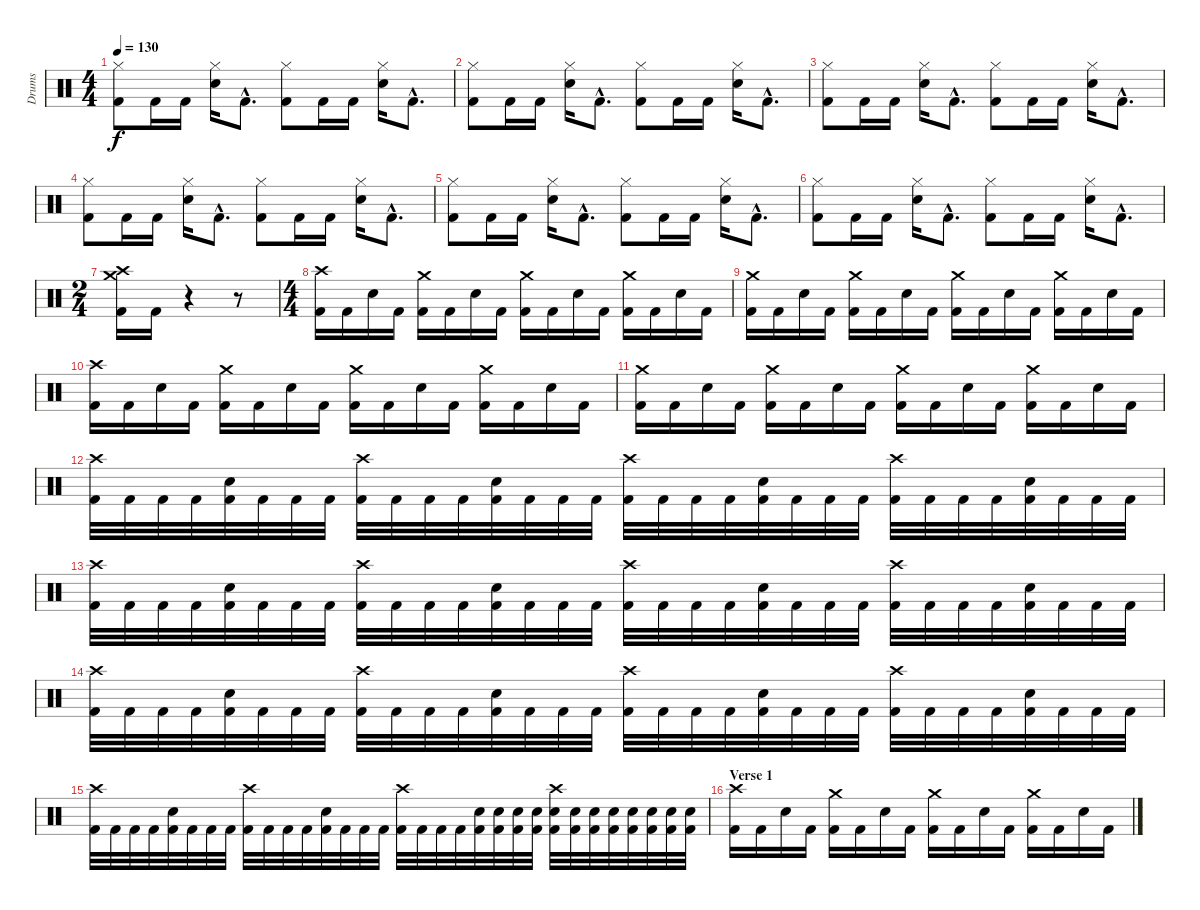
\track ("Drums" "Drums") {instrument percussion}
\staff {score}
\articulation defaults
\ts (4 4)
\tempo 130
\clef neutral
\ks c
("Hi-Hat (closed)" "Kick (hit) 2").8{dy f} "Kick (hit) 2".16{volume 14} "Kick (hit) 2".16 ("Hi-Hat (closed)" "Electric Snare (hit)").16 "Kick (hit) 2"{hac}.8{d} ("Hi-Hat (closed)" "Kick (hit) 2").8 "Kick (hit) 2".16 "Kick (hit) 2".16 ("Hi-Hat (closed)" "Electric Snare (hit)").16 "Kick (hit) 2"{hac}.8{d} |
("Hi-Hat (closed)" "Kick (hit) 2").8 "Kick (hit) 2".16 "Kick (hit) 2".16 ("Hi-Hat (closed)" "Electric Snare (hit)").16 "Kick (hit) 2"{hac}.8{d} ("Hi-Hat (closed)" "Kick (hit) 2").8 "Kick (hit) 2".16 "Kick (hit) 2".16 ("Hi-Hat (closed)" "Electric Snare (hit)").16 "Kick (hit) 2"{hac}.8{d} |
("Hi-Hat (closed)" "Kick (hit) 2").8 "Kick (hit) 2".16 "Kick (hit) 2".16 ("Hi-Hat (closed)" "Electric Snare (hit)").16 "Kick (hit) 2"{hac}.8{d} ("Hi-Hat (closed)" "Kick (hit) 2").8 "Kick (hit) 2".16 "Kick (hit) 2".16 ("Hi-Hat (closed)" "Electric Snare (hit)").16 "Kick (hit) 2"{hac}.8{d} |
("Hi-Hat (closed)" "Kick (hit) 2").8 "Kick (hit) 2".16 "Kick (hit) 2".16 ("Hi-Hat (closed)" "Electric Snare (hit)").16 "Kick (hit) 2"{hac}.8{d} ("Hi-Hat (closed)" "Kick (hit) 2").8 "Kick (hit) 2".16 "Kick (hit) 2".16 ("Hi-Hat (closed)" "Electric Snare (hit)").16 "Kick (hit) 2"{hac}.8{d} |
("Hi-Hat (closed)" "Kick (hit) 2").8 "Kick (hit) 2".16 "Kick (hit) 2".16 ("Hi-Hat (closed)" "Electric Snare (hit)").16 "Kick (hit) 2"{hac}.8{d} ("Hi-Hat (closed)" "Kick (hit) 2").8 "Kick (hit) 2".16 "Kick (hit) 2".16 ("Hi-Hat (closed)" "Electric Snare (hit)").16 "Kick (hit) 2"{hac}.8{d} |
("Hi-Hat (closed)" "Kick (hit) 2").8 "Kick (hit) 2".16 "Kick (hit) 2".16 ("Hi-Hat (closed)" "Electric Snare (hit)").16 "Kick (hit) 2"{hac}.8{d} ("Hi-Hat (closed)" "Kick (hit) 2").8 "Kick (hit) 2".16 "Kick (hit) 2".16 ("Hi-Hat (closed)" "Electric Snare (hit)").16 "Kick (hit) 2"{hac}.8{d} |
\ts (2 4)
("Crash medium (hit)" "Crash high (hit)" "Kick (hit) 2").16 "Kick (hit) 2".16 r.4 r.8 |
\ts (4 4)
("Crash high (hit)" "Kick (hit) 2").16 "Kick (hit) 2".16 "Electric Snare (hit)".16 "Kick (hit) 2".16 ("Crash medium (hit)" "Kick (hit) 2").16 "Kick (hit) 2".16 "Electric Snare (hit)".16 "Kick (hit) 2".16 ("Crash medium (hit)" "Kick (hit) 2").16 "Kick (hit) 2".16 "Electric Snare (hit)".16 "Kick (hit) 2".16 ("Crash medium (hit)" "Kick (hit) 2").16 "Kick (hit) 2".16 "Electric Snare (hit)".16 "Kick (hit) 2".16 |
("Crash medium (hit)" "Kick (hit) 2").16 "Kick (hit) 2".16 "Electric Snare (hit)".16 "Kick (hit) 2".16 ("Crash medium (hit)" "Kick (hit) 2").16 "Kick (hit) 2".16 "Electric Snare (hit)".16 "Kick (hit) 2".16 ("Crash medium (hit)" "Kick (hit) 2").16 "Kick (hit) 2".16 "Electric Snare (hit)".16 "Kick (hit) 2".16 ("Crash medium (hit)" "Kick (hit) 2").16 "Kick (hit) 2".16 "Electric Snare (hit)".16 "Kick (hit) 2".16 |
("Crash high (hit)" "Kick (hit) 2").16 "Kick (hit) 2".16 "Electric Snare (hit)".16 "Kick (hit) 2".16 ("Crash medium (hit)" "Kick (hit) 2").16 "Kick (hit) 2".16 "Electric Snare (hit)".16 "Kick (hit) 2".16 ("Crash medium (hit)" "Kick (hit) 2").16 "Kick (hit) 2".16 "Electric Snare (hit)".16 "Kick (hit) 2".16 ("Crash medium (hit)" "Kick (hit) 2").16 "Kick (hit) 2".16 "Electric Snare (hit)".16 "Kick (hit) 2".16 |
("Crash medium (hit)" "Kick (hit) 2").16 "Kick (hit) 2".16 "Electric Snare (hit)".16 "Kick (hit) 2".16 ("Crash medium (hit)" "Kick (hit) 2").16 "Kick (hit) 2".16 "Electric Snare (hit)".16 "Kick (hit) 2".16 ("Crash medium (hit)" "Kick (hit) 2").16 "Kick (hit) 2".16 "Electric Snare (hit)".16 "Kick (hit) 2".16 ("Crash medium (hit)" "Kick (hit) 2").16 "Kick (hit) 2".16 "Electric Snare (hit)".16 "Kick (hit) 2".16 |
("Crash high (hit)" "Kick (hit) 2").32 "Kick (hit) 2".32 "Kick (hit) 2".32 "Kick (hit) 2".32 ("Electric Snare (hit)" "Kick (hit) 2").32 "Kick (hit) 2".32 "Kick (hit) 2".32 "Kick (hit) 2".32 ("Crash high (hit)" "Kick (hit) 2").32 "Kick (hit) 2".32 "Kick (hit) 2".32 "Kick (hit) 2".32 ("Electric Snare (hit)" "Kick (hit) 2").32 "Kick (hit) 2".32 "Kick (hit) 2".32 "Kick (hit) 2".32 ("Crash high (hit)" "Kick (hit) 2").32 "Kick (hit) 2".32 "Kick (hit) 2".32 "Kick (hit) 2".32 ("Electric Snare (hit)" "Kick (hit) 2").32 "Kick (hit) 2".32 "Kick (hit) 2".32 "Kick (hit) 2".32 ("Crash high (hit)" "Kick (hit) 2").32 "Kick (hit) 2".32 "Kick (hit) 2".32 "Kick (hit) 2".32 ("Electric Snare (hit)" "Kick (hit) 2").32 "Kick (hit) 2".32 "Kick (hit) 2".32 "Kick (hit) 2".32 |
("Crash high (hit)" "Kick (hit) 2").32 "Kick (hit) 2".32 "Kick (hit) 2".32 "Kick (hit) 2".32 ("Electric Snare (hit)" "Kick (hit) 2").32 "Kick (hit) 2".32 "Kick (hit) 2".32 "Kick (hit) 2".32 ("Crash high (hit)" "Kick (hit) 2").32 "Kick (hit) 2".32 "Kick (hit) 2".32 "Kick (hit) 2".32 ("Electric Snare (hit)" "Kick (hit) 2").32 "Kick (hit) 2".32 "Kick (hit) 2".32 "Kick (hit) 2".32 ("Crash high (hit)" "Kick (hit) 2").32 "Kick (hit) 2".32 "Kick (hit) 2".32 "Kick (hit) 2".32 ("Electric Snare (hit)" "Kick (hit) 2").32 "Kick (hit) 2".32 "Kick (hit) 2".32 "Kick (hit) 2".32 ("Crash high (hit)" "Kick (hit) 2").32 "Kick (hit) 2".32 "Kick (hit) 2".32 "Kick (hit) 2".32 ("Electric Snare (hit)" "Kick (hit) 2").32 "Kick (hit) 2".32 "Kick (hit) 2".32 "Kick (hit) 2".32 |
("Crash high (hit)" "Kick (hit) 2").32 "Kick (hit) 2".32 "Kick (hit) 2".32 "Kick (hit) 2".32 ("Electric Snare (hit)" "Kick (hit) 2").32 "Kick (hit) 2".32 "Kick (hit) 2".32 "Kick (hit) 2".32 ("Crash high (hit)" "Kick (hit) 2").32 "Kick (hit) 2".32 "Kick (hit) 2".32 "Kick (hit) 2".32 ("Electric Snare (hit)" "Kick (hit) 2").32 "Kick (hit) 2".32 "Kick (hit) 2".32 "Kick (hit) 2".32 ("Crash high (hit)" "Kick (hit) 2").32 "Kick (hit) 2".32 "Kick (hit) 2".32 "Kick (hit) 2".32 ("Electric Snare (hit)" "Kick (hit) 2").32 "Kick (hit) 2".32 "Kick (hit) 2".32 "Kick (hit) 2".32 ("Crash high (hit)" "Kick (hit) 2").32 "Kick (hit) 2".32 "Kick (hit) 2".32 "Kick (hit) 2".32 ("Electric Snare (hit)" "Kick (hit) 2").32 "Kick (hit) 2".32 "Kick (hit) 2".32 "Kick (hit) 2".32 |
("Crash high (hit)" "Kick (hit) 2").32 "Kick (hit) 2".32 "Kick (hit) 2".32 "Kick (hit) 2".32 ("Electric Snare (hit)" "Kick (hit) 2").32 "Kick (hit) 2".32 "Kick (hit) 2".32 "Kick (hit) 2".32 ("Crash high (hit)" "Kick (hit) 2").32 "Kick (hit) 2".32 "Kick (hit) 2".32 "Kick (hit) 2".32 ("Electric Snare (hit)" "Kick (hit) 2").32 "Kick (hit) 2".32 "Kick (hit) 2".32 "Kick (hit) 2".32 ("Crash high (hit)" "Kick (hit) 2").32 "Kick (hit) 2".32 "Kick (hit) 2".32 "Kick (hit) 2".32 ("Electric Snare (hit)" "Kick (hit) 2").32 ("Electric Snare (hit)" "Kick (hit) 2").32 ("Electric Snare (hit)" "Kick (hit) 2").32 ("Electric Snare (hit)" "Kick (hit) 2").32 ("Crash high (hit)" "Electric Snare (hit)" "Kick (hit) 2").32 ("Electric Snare (hit)" "Kick (hit) 2").32 ("Electric Snare (hit)" "Kick (hit) 2").32 ("Electric Snare (hit)" "Kick (hit) 2").32 ("Electric Snare (hit)" "Kick (hit) 2").32 ("Electric Snare (hit)" "Kick (hit) 2").32 ("Electric Snare (hit)" "Kick (hit) 2").32 ("Electric Snare (hit)" "Kick (hit) 2").32 |
\section ("" "Verse 1")
("Crash high (hit)" "Kick (hit) 2").16 "Kick (hit) 2".16 "Electric Snare (hit)".16 "Kick (hit) 2".16 ("Crash medium (hit)" "Kick (hit) 2").16 "Kick (hit) 2".16 "Electric Snare (hit)".16 "Kick (hit) 2".16 ("Crash medium (hit)" "Kick (hit) 2").16 "Kick (hit) 2".16 "Electric Snare (hit)".16 "Kick (hit) 2".16 ("Crash medium (hit)" "Kick (hit) 2").16 "Kick (hit) 2".16 "Electric Snare (hit)".16 "Kick (hit) 2".16
